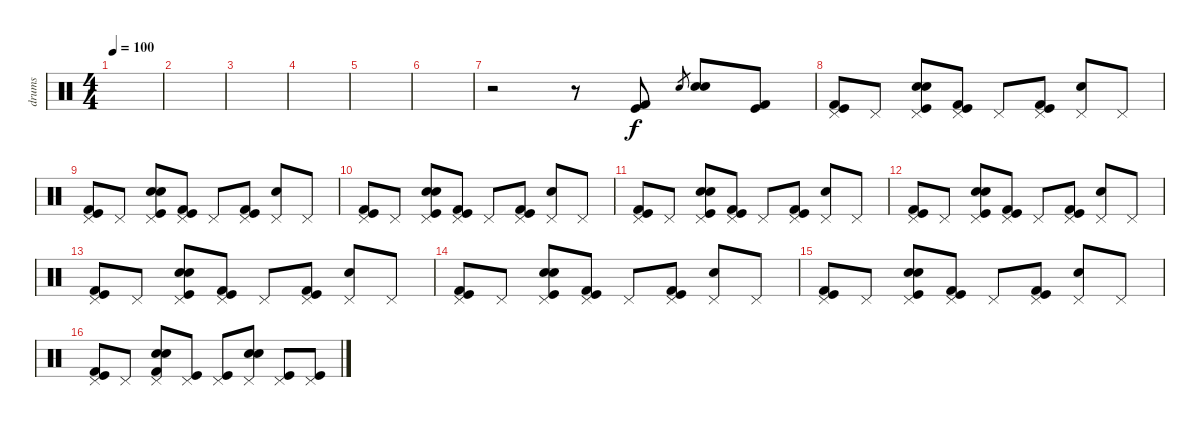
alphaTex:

\track ("drums" "drums") {instrument percussion}
\staff {score}
\articulation defaults
\ts (4 4)
\tempo 100
\clef neutral
\ks c
|
|
|
|
|
|
r.2 r.8 ("Kick (hit) 2" "Kick (hit)").8 "Electric Snare (hit)"{sl}.8{gr} ("Electric Snare (hit)" "Snare (hit) 2").8 ("Kick (hit)" "Kick (hit) 2").8 |
("Pedal Hi-Hat (hit)" "Kick (hit) 2" "Kick (hit)").8 "Pedal Hi-Hat (hit)".8 ("Pedal Hi-Hat (hit)" "Electric Snare (hit)" "Snare (hit) 2" "Kick (hit)").8 ("Pedal Hi-Hat (hit)" "Kick (hit) 2" "Kick (hit)").8 "Pedal Hi-Hat (hit)".8 ("Pedal Hi-Hat (hit)" "Kick (hit) 2" "Kick (hit)").8 ("Pedal Hi-Hat (hit)" "Snare (hit) 2").8 "Pedal Hi-Hat (hit)".8 |
("Pedal Hi-Hat (hit)" "Kick (hit) 2" "Kick (hit)").8 "Pedal Hi-Hat (hit)".8 ("Pedal Hi-Hat (hit)" "Electric Snare (hit)" "Snare (hit) 2" "Kick (hit)").8 ("Pedal Hi-Hat (hit)" "Kick (hit) 2" "Kick (hit)").8 "Pedal Hi-Hat (hit)".8 ("Pedal Hi-Hat (hit)" "Kick (hit) 2" "Kick (hit)").8 ("Pedal Hi-Hat (hit)" "Snare (hit) 2").8 "Pedal Hi-Hat (hit)".8 |
("Pedal Hi-Hat (hit)" "Kick (hit) 2" "Kick (hit)").8 "Pedal Hi-Hat (hit)".8 ("Pedal Hi-Hat (hit)" "Electric Snare (hit)" "Snare (hit) 2" "Kick (hit)").8 ("Pedal Hi-Hat (hit)" "Kick (hit) 2" "Kick (hit)").8 "Pedal Hi-Hat (hit)".8 ("Pedal Hi-Hat (hit)" "Kick (hit) 2" "Kick (hit)").8 ("Pedal Hi-Hat (hit)" "Snare (hit) 2").8 "Pedal Hi-Hat (hit)".8 |
("Pedal Hi-Hat (hit)" "Kick (hit) 2" "Kick (hit)").8 "Pedal Hi-Hat (hit)".8 ("Pedal Hi-Hat (hit)" "Electric Snare (hit)" "Snare (hit) 2" "Kick (hit)").8 ("Pedal Hi-Hat (hit)" "Kick (hit) 2" "Kick (hit)").8 "Pedal Hi-Hat (hit)".8 ("Pedal Hi-Hat (hit)" "Kick (hit) 2" "Kick (hit)").8 ("Pedal Hi-Hat (hit)" "Snare (hit) 2").8 "Pedal Hi-Hat (hit)".8 |
("Pedal Hi-Hat (hit)" "Kick (hit) 2" "Kick (hit)").8 "Pedal Hi-Hat (hit)".8 ("Pedal Hi-Hat (hit)" "Electric Snare (hit)" "Snare (hit) 2" "Kick (hit)").8 ("Pedal Hi-Hat (hit)" "Kick (hit) 2" "Kick (hit)").8 "Pedal Hi-Hat (hit)".8 ("Pedal Hi-Hat (hit)" "Kick (hit) 2" "Kick (hit)").8 ("Pedal Hi-Hat (hit)" "Snare (hit) 2").8 "Pedal Hi-Hat (hit)".8 |
("Pedal Hi-Hat (hit)" "Kick (hit) 2" "Kick (hit)").8 "Pedal Hi-Hat (hit)".8 ("Pedal Hi-Hat (hit)" "Electric Snare (hit)" "Snare (hit) 2" "Kick (hit)").8 ("Pedal Hi-Hat (hit)" "Kick (hit) 2" "Kick (hit)").8 "Pedal Hi-Hat (hit)".8 ("Pedal Hi-Hat (hit)" "Kick (hit) 2" "Kick (hit)").8 ("Pedal Hi-Hat (hit)" "Snare (hit) 2").8 "Pedal Hi-Hat (hit)".8 |
("Pedal Hi-Hat (hit)" "Kick (hit) 2" "Kick (hit)").8 "Pedal Hi-Hat (hit)".8 ("Pedal Hi-Hat (hit)" "Electric Snare (hit)" "Snare (hit) 2" "Kick (hit)").8 ("Pedal Hi-Hat (hit)" "Kick (hit) 2" "Kick (hit)").8 "Pedal Hi-Hat (hit)".8 ("Pedal Hi-Hat (hit)" "Kick (hit) 2" "Kick (hit)").8 ("Pedal Hi-Hat (hit)" "Snare (hit) 2").8 "Pedal Hi-Hat (hit)".8 |
("Pedal Hi-Hat (hit)" "Kick (hit) 2" "Kick (hit)").8 "Pedal Hi-Hat (hit)".8 ("Pedal Hi-Hat (hit)" "Electric Snare (hit)" "Snare (hit) 2" "Kick (hit)").8 ("Pedal Hi-Hat (hit)" "Kick (hit) 2" "Kick (hit)").8 "Pedal Hi-Hat (hit)".8 ("Pedal Hi-Hat (hit)" "Kick (hit) 2" "Kick (hit)").8 ("Pedal Hi-Hat (hit)" "Snare (hit) 2").8 "Pedal Hi-Hat (hit)".8 |
("Pedal Hi-Hat (hit)" "Kick (hit) 2" "Kick (hit)").8 "Pedal Hi-Hat (hit)".8 ("Pedal Hi-Hat (hit)" "Electric Snare (hit)" "Snare (hit) 2" "Kick (hit) 2").8 ("Pedal Hi-Hat (hit)" "Kick (hit)").8 ("Pedal Hi-Hat (hit)" "Kick (hit)").8 ("Pedal Hi-Hat (hit)" "Electric Snare (hit)" "Snare (hit) 2").8 ("Pedal Hi-Hat (hit)" "Kick (hit)").8 ("Pedal Hi-Hat (hit)" "Kick (hit)").8
